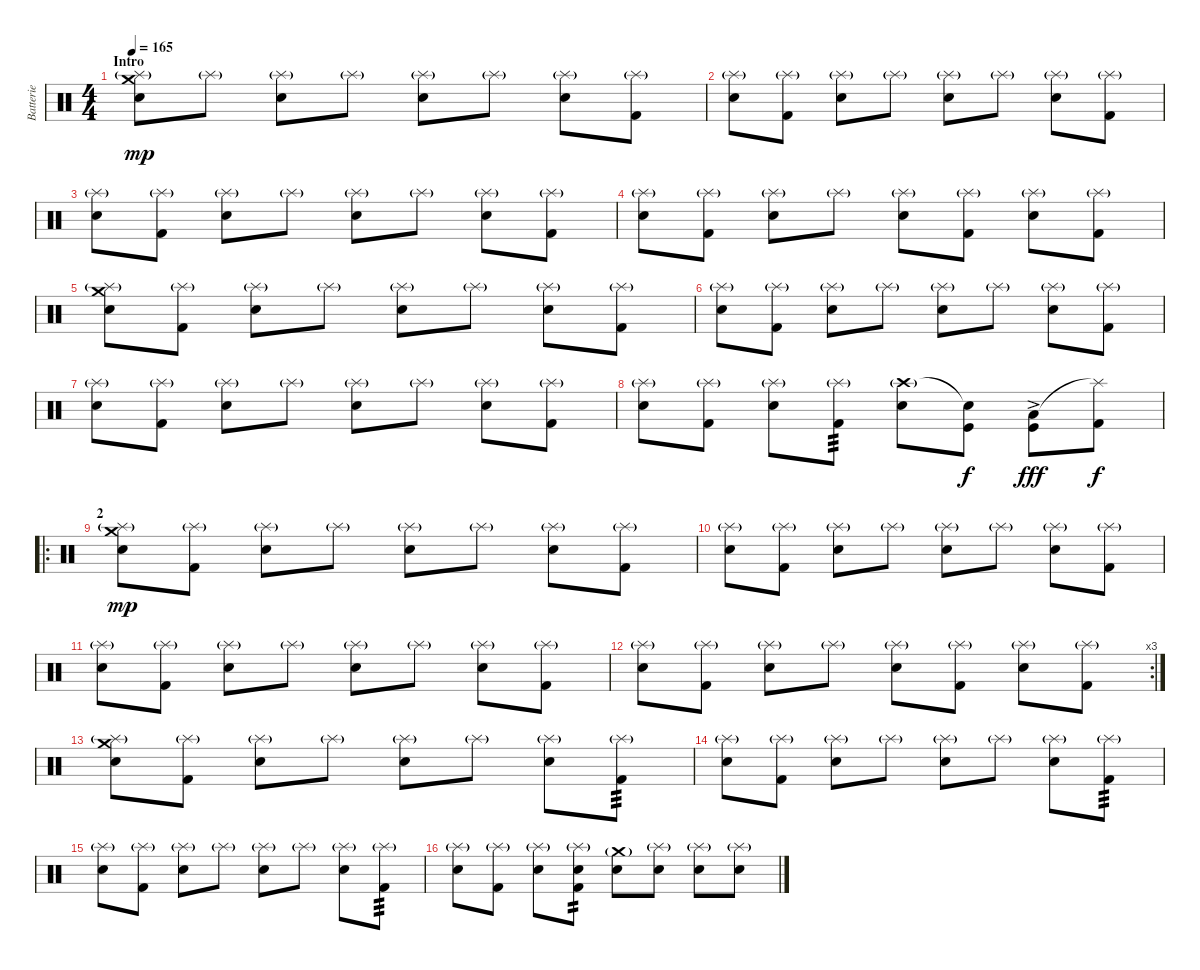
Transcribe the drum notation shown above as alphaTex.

\track ("Batterie" "Batterie") {instrument percussion}
\staff {score}
\articulation defaults
\ts (4 4)
\section ("" "Intro")
\tempo 165
\clef neutral
\ks c
("Splash (hit)"{g} "Electric Snare (hit)" "Crash medium (hit)").8{dy mp} "Splash (hit)"{g}.8 ("Splash (hit)"{g} "Electric Snare (hit)").8 "Splash (hit)"{g}.8 ("Splash (hit)"{g} "Electric Snare (hit)").8 "Splash (hit)"{g}.8 ("Splash (hit)"{g} "Electric Snare (hit)").8 ("Splash (hit)"{g} "Kick (hit) 2").8 |
("Splash (hit)"{g} "Electric Snare (hit)").8 ("Splash (hit)"{g} "Kick (hit) 2").8 ("Splash (hit)"{g} "Electric Snare (hit)").8 "Splash (hit)"{g}.8 ("Splash (hit)"{g} "Electric Snare (hit)").8 "Splash (hit)"{g}.8 ("Splash (hit)"{g} "Electric Snare (hit)").8 ("Splash (hit)"{g} "Kick (hit) 2").8 |
("Splash (hit)"{g} "Electric Snare (hit)").8 ("Splash (hit)"{g} "Kick (hit) 2").8 ("Splash (hit)"{g} "Electric Snare (hit)").8 "Splash (hit)"{g}.8 ("Splash (hit)"{g} "Electric Snare (hit)").8 "Splash (hit)"{g}.8 ("Splash (hit)"{g} "Electric Snare (hit)").8 ("Splash (hit)"{g} "Kick (hit) 2").8 |
("Splash (hit)"{g} "Electric Snare (hit)").8 ("Splash (hit)"{g} "Kick (hit) 2").8 ("Splash (hit)"{g} "Electric Snare (hit)").8 "Splash (hit)"{g}.8 ("Splash (hit)"{g} "Electric Snare (hit)").8 ("Splash (hit)"{g} "Kick (hit) 2").8 ("Splash (hit)"{g} "Electric Snare (hit)").8 ("Splash (hit)"{g} "Kick (hit) 2").8 |
("Splash (hit)"{g} "Electric Snare (hit)" "Crash medium (hit)").8 ("Splash (hit)"{g} "Kick (hit) 2").8 ("Splash (hit)"{g} "Electric Snare (hit)").8 "Splash (hit)"{g}.8 ("Splash (hit)"{g} "Electric Snare (hit)").8 "Splash (hit)"{g}.8 ("Splash (hit)"{g} "Electric Snare (hit)").8 ("Splash (hit)"{g} "Kick (hit) 2").8 |
("Splash (hit)"{g} "Electric Snare (hit)").8 ("Splash (hit)"{g} "Kick (hit) 2").8 ("Splash (hit)"{g} "Electric Snare (hit)").8 "Splash (hit)"{g}.8 ("Splash (hit)"{g} "Electric Snare (hit)").8 "Splash (hit)"{g}.8 ("Splash (hit)"{g} "Electric Snare (hit)").8 ("Splash (hit)"{g} "Kick (hit) 2").8 |
("Splash (hit)"{g} "Electric Snare (hit)").8 ("Splash (hit)"{g} "Kick (hit) 2").8 ("Splash (hit)"{g} "Electric Snare (hit)").8 "Splash (hit)"{g}.8 ("Splash (hit)"{g} "Electric Snare (hit)").8 "Splash (hit)"{g}.8 ("Splash (hit)"{g} "Electric Snare (hit)").8 ("Splash (hit)"{g} "Kick (hit) 2").8 |
("Splash (hit)"{g} "Electric Snare (hit)").8 ("Splash (hit)"{g} "Kick (hit) 2").8 ("Splash (hit)"{g} "Electric Snare (hit)").8 ("Splash (hit)"{g} "Kick (hit) 2").8{tp 3} ("Crash high (hit)"{g} "Snare (hit) 2").8 ("Snare (hit)"{t} "Kick (hit)").8{dy f} ("Low Tom (hit)"{ac} "Kick (hit)").8{dy fff} ("Splash (hit)"{t} "Kick (hit) 2").8{dy f} |
\ro
\section ("" "2")
("Splash (hit)"{g} "Electric Snare (hit)" "Crash medium (hit)").8{dy mp} ("Splash (hit)"{g} "Kick (hit) 2").8 ("Splash (hit)"{g} "Electric Snare (hit)").8 "Splash (hit)"{g}.8 ("Splash (hit)"{g} "Electric Snare (hit)").8 "Splash (hit)"{g}.8 ("Splash (hit)"{g} "Electric Snare (hit)").8 ("Splash (hit)"{g} "Kick (hit) 2").8 |
("Splash (hit)"{g} "Electric Snare (hit)").8 ("Splash (hit)"{g} "Kick (hit) 2").8 ("Splash (hit)"{g} "Electric Snare (hit)").8 "Splash (hit)"{g}.8 ("Splash (hit)"{g} "Electric Snare (hit)").8 "Splash (hit)"{g}.8 ("Splash (hit)"{g} "Electric Snare (hit)").8 ("Splash (hit)"{g} "Kick (hit) 2").8 |
("Splash (hit)"{g} "Electric Snare (hit)").8 ("Splash (hit)"{g} "Kick (hit) 2").8 ("Splash (hit)"{g} "Electric Snare (hit)").8 "Splash (hit)"{g}.8 ("Splash (hit)"{g} "Electric Snare (hit)").8 "Splash (hit)"{g}.8 ("Splash (hit)"{g} "Electric Snare (hit)").8 ("Splash (hit)"{g} "Kick (hit) 2").8 |
\rc 3
("Splash (hit)"{g} "Electric Snare (hit)").8 ("Splash (hit)"{g} "Kick (hit) 2").8 ("Splash (hit)"{g} "Electric Snare (hit)").8 "Splash (hit)"{g}.8 ("Splash (hit)"{g} "Electric Snare (hit)").8 ("Splash (hit)"{g} "Kick (hit) 2").8 ("Splash (hit)"{g} "Electric Snare (hit)").8 ("Splash (hit)"{g} "Kick (hit) 2").8 |
("Splash (hit)"{g} "Electric Snare (hit)" "Crash medium (hit)").8 ("Splash (hit)"{g} "Kick (hit) 2").8 ("Splash (hit)"{g} "Electric Snare (hit)").8 "Splash (hit)"{g}.8 ("Splash (hit)"{g} "Electric Snare (hit)").8 "Splash (hit)"{g}.8 ("Splash (hit)"{g} "Electric Snare (hit)").8 ("Splash (hit)"{g} "Kick (hit) 2").8{tp 3} |
("Splash (hit)"{g} "Electric Snare (hit)").8 ("Splash (hit)"{g} "Kick (hit) 2").8 ("Splash (hit)"{g} "Electric Snare (hit)").8 "Splash (hit)"{g}.8 ("Splash (hit)"{g} "Electric Snare (hit)").8 "Splash (hit)"{g}.8 ("Splash (hit)"{g} "Electric Snare (hit)").8 ("Splash (hit)"{g} "Kick (hit) 2").8{tp 3} |
("Splash (hit)"{g} "Electric Snare (hit)").8 ("Splash (hit)"{g} "Kick (hit) 2").8 ("Splash (hit)"{g} "Electric Snare (hit)").8 "Splash (hit)"{g}.8 ("Splash (hit)"{g} "Electric Snare (hit)").8 "Splash (hit)"{g}.8 ("Splash (hit)"{g} "Electric Snare (hit)").8 ("Splash (hit)"{g} "Kick (hit) 2").8{tp 3} |
("Splash (hit)"{g} "Electric Snare (hit)").8 ("Splash (hit)"{g} "Kick (hit) 2").8 ("Splash (hit)"{g} "Electric Snare (hit)").8 ("Splash (hit)"{g} "Electric Snare (hit)" "Kick (hit) 2").8{tp 2} ("Crash medium (hit)"{g} "Electric Snare (hit)").8 ("Splash (hit)"{g} "Electric Snare (hit)").8 ("Splash (hit)"{g} "Electric Snare (hit)").8 ("Splash (hit)"{g} "Electric Snare (hit)").8
